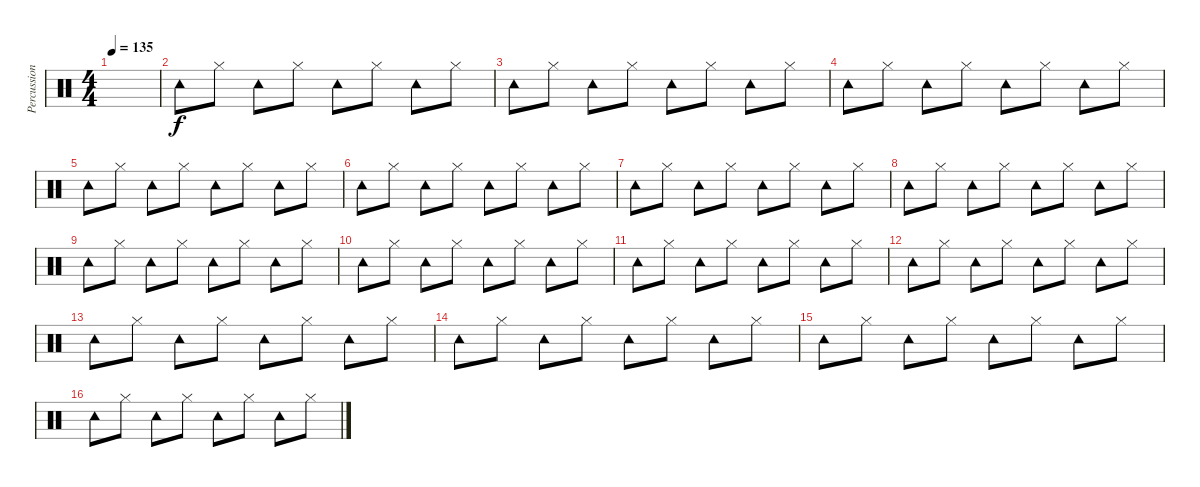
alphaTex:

\track ("Percussion2" "Percussion") {instrument percussion}
\staff {score}
\articulation defaults
\ts (4 4)
\tempo 135
\clef neutral
\ks c
|
"Tambourine (hit)".8 "Hi-Hat (closed)".8 "Tambourine (hit)".8 "Hi-Hat (closed)".8 "Tambourine (hit)".8 "Hi-Hat (closed)".8 "Tambourine (hit)".8 "Hi-Hat (closed)".8 |
"Tambourine (hit)".8 "Hi-Hat (closed)".8 "Tambourine (hit)".8 "Hi-Hat (closed)".8 "Tambourine (hit)".8 "Hi-Hat (closed)".8 "Tambourine (hit)".8 "Hi-Hat (closed)".8 |
"Tambourine (hit)".8 "Hi-Hat (closed)".8 "Tambourine (hit)".8 "Hi-Hat (closed)".8 "Tambourine (hit)".8 "Hi-Hat (closed)".8 "Tambourine (hit)".8 "Hi-Hat (closed)".8 |
"Tambourine (hit)".8 "Hi-Hat (closed)".8 "Tambourine (hit)".8 "Hi-Hat (closed)".8 "Tambourine (hit)".8 "Hi-Hat (closed)".8 "Tambourine (hit)".8 "Hi-Hat (closed)".8 |
"Tambourine (hit)".8 "Hi-Hat (closed)".8 "Tambourine (hit)".8 "Hi-Hat (closed)".8 "Tambourine (hit)".8 "Hi-Hat (closed)".8 "Tambourine (hit)".8 "Hi-Hat (closed)".8 |
"Tambourine (hit)".8 "Hi-Hat (closed)".8 "Tambourine (hit)".8 "Hi-Hat (closed)".8 "Tambourine (hit)".8 "Hi-Hat (closed)".8 "Tambourine (hit)".8 "Hi-Hat (closed)".8 |
"Tambourine (hit)".8 "Hi-Hat (closed)".8 "Tambourine (hit)".8 "Hi-Hat (closed)".8 "Tambourine (hit)".8 "Hi-Hat (closed)".8 "Tambourine (hit)".8 "Hi-Hat (closed)".8 |
"Tambourine (hit)".8 "Hi-Hat (closed)".8 "Tambourine (hit)".8 "Hi-Hat (closed)".8 "Tambourine (hit)".8 "Hi-Hat (closed)".8 "Tambourine (hit)".8 "Hi-Hat (closed)".8 |
"Tambourine (hit)".8 "Hi-Hat (closed)".8 "Tambourine (hit)".8 "Hi-Hat (closed)".8 "Tambourine (hit)".8 "Hi-Hat (closed)".8 "Tambourine (hit)".8 "Hi-Hat (closed)".8 |
"Tambourine (hit)".8 "Hi-Hat (closed)".8 "Tambourine (hit)".8 "Hi-Hat (closed)".8 "Tambourine (hit)".8 "Hi-Hat (closed)".8 "Tambourine (hit)".8 "Hi-Hat (closed)".8 |
"Tambourine (hit)".8 "Hi-Hat (closed)".8 "Tambourine (hit)".8 "Hi-Hat (closed)".8 "Tambourine (hit)".8 "Hi-Hat (closed)".8 "Tambourine (hit)".8 "Hi-Hat (closed)".8 |
"Tambourine (hit)".8 "Hi-Hat (closed)".8 "Tambourine (hit)".8 "Hi-Hat (closed)".8 "Tambourine (hit)".8 "Hi-Hat (closed)".8 "Tambourine (hit)".8 "Hi-Hat (closed)".8 |
"Tambourine (hit)".8 "Hi-Hat (closed)".8 "Tambourine (hit)".8 "Hi-Hat (closed)".8 "Tambourine (hit)".8 "Hi-Hat (closed)".8 "Tambourine (hit)".8 "Hi-Hat (closed)".8 |
"Tambourine (hit)".8 "Hi-Hat (closed)".8 "Tambourine (hit)".8 "Hi-Hat (closed)".8 "Tambourine (hit)".8 "Hi-Hat (closed)".8 "Tambourine (hit)".8 "Hi-Hat (closed)".8 |
"Tambourine (hit)".8 "Hi-Hat (closed)".8 "Tambourine (hit)".8 "Hi-Hat (closed)".8 "Tambourine (hit)".8 "Hi-Hat (closed)".8 "Tambourine (hit)".8 "Hi-Hat (closed)".8
